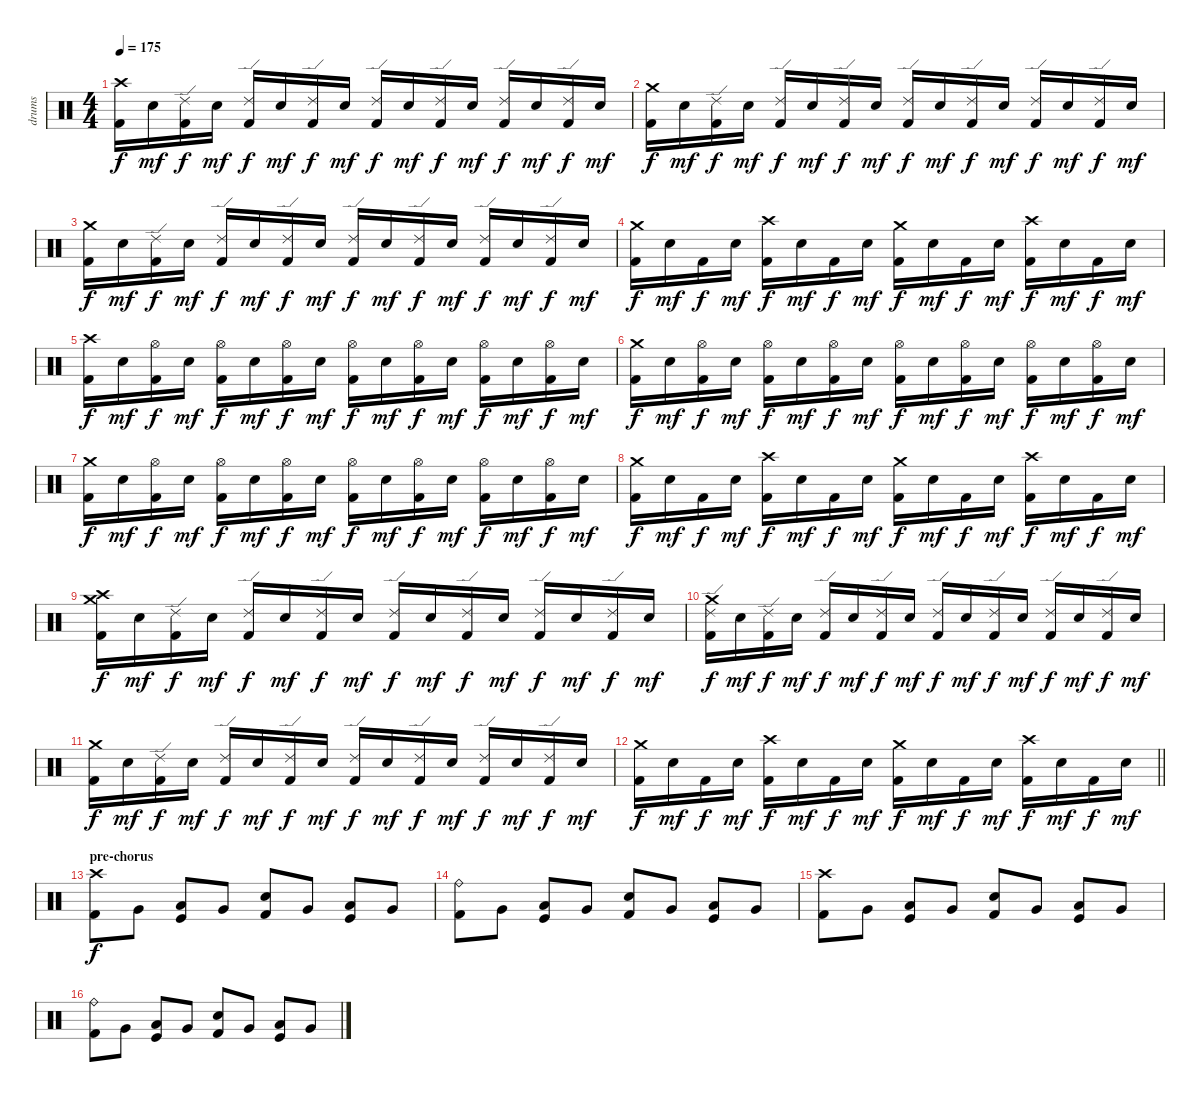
\track ("drums" "drums") {instrument percussion}
\staff {score}
\articulation defaults
\ts (4 4)
\tempo 175
\clef neutral
\ks c
("Crash high (hit)" "Kick (hit) 2").16{dy f} "Electric Snare (hit)".16{dy mf} ("Ride (edge) 2" "Kick (hit) 2").16{dy f} "Electric Snare (hit)".16{dy mf} ("Ride (edge) 2" "Kick (hit) 2").16{dy f} "Electric Snare (hit)".16{dy mf} ("Ride (edge) 2" "Kick (hit) 2").16{dy f} "Electric Snare (hit)".16{dy mf} ("Ride (edge) 2" "Kick (hit) 2").16{dy f} "Electric Snare (hit)".16{dy mf} ("Ride (edge) 2" "Kick (hit) 2").16{dy f} "Electric Snare (hit)".16{dy mf} ("Ride (edge) 2" "Kick (hit) 2").16{dy f} "Electric Snare (hit)".16{dy mf} ("Ride (edge) 2" "Kick (hit) 2").16{dy f} "Electric Snare (hit)".16{dy mf} |
("Crash medium (hit)" "Kick (hit) 2").16{dy f} "Electric Snare (hit)".16{dy mf} ("Ride (edge) 2" "Kick (hit) 2").16{dy f} "Electric Snare (hit)".16{dy mf} ("Ride (edge) 2" "Kick (hit) 2").16{dy f} "Electric Snare (hit)".16{dy mf} ("Ride (edge) 2" "Kick (hit) 2").16{dy f} "Electric Snare (hit)".16{dy mf} ("Ride (edge) 2" "Kick (hit) 2").16{dy f} "Electric Snare (hit)".16{dy mf} ("Ride (edge) 2" "Kick (hit) 2").16{dy f} "Electric Snare (hit)".16{dy mf} ("Ride (edge) 2" "Kick (hit) 2").16{dy f} "Electric Snare (hit)".16{dy mf} ("Ride (edge) 2" "Kick (hit) 2").16{dy f} "Electric Snare (hit)".16{dy mf} |
("Crash medium (hit)" "Kick (hit) 2").16{dy f} "Electric Snare (hit)".16{dy mf} ("Ride (edge) 2" "Kick (hit) 2").16{dy f} "Electric Snare (hit)".16{dy mf} ("Ride (edge) 2" "Kick (hit) 2").16{dy f} "Electric Snare (hit)".16{dy mf} ("Ride (edge) 2" "Kick (hit) 2").16{dy f} "Electric Snare (hit)".16{dy mf} ("Ride (edge) 2" "Kick (hit) 2").16{dy f} "Electric Snare (hit)".16{dy mf} ("Ride (edge) 2" "Kick (hit) 2").16{dy f} "Electric Snare (hit)".16{dy mf} ("Ride (edge) 2" "Kick (hit) 2").16{dy f} "Electric Snare (hit)".16{dy mf} ("Ride (edge) 2" "Kick (hit) 2").16{dy f} "Electric Snare (hit)".16{dy mf} |
("Crash medium (hit)" "Kick (hit) 2").16{dy f} "Electric Snare (hit)".16{dy mf} "Kick (hit) 2".16{dy f} "Electric Snare (hit)".16{dy mf} ("Crash high (hit)" "Kick (hit) 2").16{dy f} "Electric Snare (hit)".16{dy mf} "Kick (hit) 2".16{dy f} "Electric Snare (hit)".16{dy mf} ("Crash medium (hit)" "Kick (hit) 2").16{dy f} "Electric Snare (hit)".16{dy mf} "Kick (hit) 2".16{dy f} "Electric Snare (hit)".16{dy mf} ("Crash high (hit)" "Kick (hit) 2").16{dy f} "Electric Snare (hit)".16{dy mf} "Kick (hit) 2".16{dy f} "Electric Snare (hit)".16{dy mf} |
("Crash high (hit)" "Kick (hit) 2").16{dy f} "Electric Snare (hit)".16{dy mf} ("Hi-Hat (open)" "Kick (hit) 2").16{dy f} "Electric Snare (hit)".16{dy mf} ("Hi-Hat (open)" "Kick (hit) 2").16{dy f} "Electric Snare (hit)".16{dy mf} ("Hi-Hat (open)" "Kick (hit) 2").16{dy f} "Electric Snare (hit)".16{dy mf} ("Hi-Hat (open)" "Kick (hit) 2").16{dy f} "Electric Snare (hit)".16{dy mf} ("Hi-Hat (open)" "Kick (hit) 2").16{dy f} "Electric Snare (hit)".16{dy mf} ("Hi-Hat (open)" "Kick (hit) 2").16{dy f} "Electric Snare (hit)".16{dy mf} ("Hi-Hat (open)" "Kick (hit) 2").16{dy f} "Electric Snare (hit)".16{dy mf} |
("Crash medium (hit)" "Kick (hit) 2").16{dy f} "Electric Snare (hit)".16{dy mf} ("Hi-Hat (open)" "Kick (hit) 2").16{dy f} "Electric Snare (hit)".16{dy mf} ("Hi-Hat (open)" "Kick (hit) 2").16{dy f} "Electric Snare (hit)".16{dy mf} ("Hi-Hat (open)" "Kick (hit) 2").16{dy f} "Electric Snare (hit)".16{dy mf} ("Hi-Hat (open)" "Kick (hit) 2").16{dy f} "Electric Snare (hit)".16{dy mf} ("Hi-Hat (open)" "Kick (hit) 2").16{dy f} "Electric Snare (hit)".16{dy mf} ("Hi-Hat (open)" "Kick (hit) 2").16{dy f} "Electric Snare (hit)".16{dy mf} ("Hi-Hat (open)" "Kick (hit) 2").16{dy f} "Electric Snare (hit)".16{dy mf} |
("Crash medium (hit)" "Kick (hit) 2").16{dy f} "Electric Snare (hit)".16{dy mf} ("Hi-Hat (open)" "Kick (hit) 2").16{dy f} "Electric Snare (hit)".16{dy mf} ("Hi-Hat (open)" "Kick (hit) 2").16{dy f} "Electric Snare (hit)".16{dy mf} ("Hi-Hat (open)" "Kick (hit) 2").16{dy f} "Electric Snare (hit)".16{dy mf} ("Hi-Hat (open)" "Kick (hit) 2").16{dy f} "Electric Snare (hit)".16{dy mf} ("Hi-Hat (open)" "Kick (hit) 2").16{dy f} "Electric Snare (hit)".16{dy mf} ("Hi-Hat (open)" "Kick (hit) 2").16{dy f} "Electric Snare (hit)".16{dy mf} ("Hi-Hat (open)" "Kick (hit) 2").16{dy f} "Electric Snare (hit)".16{dy mf} |
("Crash medium (hit)" "Kick (hit) 2").16{dy f} "Electric Snare (hit)".16{dy mf} "Kick (hit) 2".16{dy f} "Electric Snare (hit)".16{dy mf} ("Crash high (hit)" "Kick (hit) 2").16{dy f} "Electric Snare (hit)".16{dy mf} "Kick (hit) 2".16{dy f} "Electric Snare (hit)".16{dy mf} ("Crash medium (hit)" "Kick (hit) 2").16{dy f} "Electric Snare (hit)".16{dy mf} "Kick (hit) 2".16{dy f} "Electric Snare (hit)".16{dy mf} ("Crash high (hit)" "Kick (hit) 2").16{dy f} "Electric Snare (hit)".16{dy mf} "Kick (hit) 2".16{dy f} "Electric Snare (hit)".16{dy mf} |
("Crash high (hit)" "Crash medium (hit)" "Kick (hit) 2").16{dy f} "Electric Snare (hit)".16{dy mf} ("Ride (edge) 2" "Kick (hit) 2").16{dy f} "Electric Snare (hit)".16{dy mf} ("Ride (edge) 2" "Kick (hit) 2").16{dy f} "Electric Snare (hit)".16{dy mf} ("Ride (edge) 2" "Kick (hit) 2").16{dy f} "Electric Snare (hit)".16{dy mf} ("Ride (edge) 2" "Kick (hit) 2").16{dy f} "Electric Snare (hit)".16{dy mf} ("Ride (edge) 2" "Kick (hit) 2").16{dy f} "Electric Snare (hit)".16{dy mf} ("Ride (edge) 2" "Kick (hit) 2").16{dy f} "Electric Snare (hit)".16{dy mf} ("Ride (edge) 2" "Kick (hit) 2").16{dy f} "Electric Snare (hit)".16{dy mf} |
("Crash medium (hit)" "Ride (edge) 2" "Kick (hit) 2").16{dy f} "Electric Snare (hit)".16{dy mf} ("Ride (edge) 2" "Kick (hit) 2").16{dy f} "Electric Snare (hit)".16{dy mf} ("Ride (edge) 2" "Kick (hit) 2").16{dy f} "Electric Snare (hit)".16{dy mf} ("Ride (edge) 2" "Kick (hit) 2").16{dy f} "Electric Snare (hit)".16{dy mf} ("Ride (edge) 2" "Kick (hit) 2").16{dy f} "Electric Snare (hit)".16{dy mf} ("Ride (edge) 2" "Kick (hit) 2").16{dy f} "Electric Snare (hit)".16{dy mf} ("Ride (edge) 2" "Kick (hit) 2").16{dy f} "Electric Snare (hit)".16{dy mf} ("Ride (edge) 2" "Kick (hit) 2").16{dy f} "Electric Snare (hit)".16{dy mf} |
("Crash medium (hit)" "Kick (hit) 2").16{dy f} "Electric Snare (hit)".16{dy mf} ("Ride (edge) 2" "Kick (hit) 2").16{dy f} "Electric Snare (hit)".16{dy mf} ("Ride (edge) 2" "Kick (hit) 2").16{dy f} "Electric Snare (hit)".16{dy mf} ("Ride (edge) 2" "Kick (hit) 2").16{dy f} "Electric Snare (hit)".16{dy mf} ("Ride (edge) 2" "Kick (hit) 2").16{dy f} "Electric Snare (hit)".16{dy mf} ("Ride (edge) 2" "Kick (hit) 2").16{dy f} "Electric Snare (hit)".16{dy mf} ("Ride (edge) 2" "Kick (hit) 2").16{dy f} "Electric Snare (hit)".16{dy mf} ("Ride (edge) 2" "Kick (hit) 2").16{dy f} "Electric Snare (hit)".16{dy mf} |
\barLineRight lightlight
("Crash medium (hit)" "Kick (hit) 2").16{dy f} "Electric Snare (hit)".16{dy mf} "Kick (hit) 2".16{dy f} "Electric Snare (hit)".16{dy mf} ("Crash high (hit)" "Kick (hit) 2").16{dy f} "Electric Snare (hit)".16{dy mf} "Kick (hit) 2".16{dy f} "Electric Snare (hit)".16{dy mf} ("Crash medium (hit)" "Kick (hit) 2").16{dy f} "Electric Snare (hit)".16{dy mf} "Kick (hit) 2".16{dy f} "Electric Snare (hit)".16{dy mf} ("Crash high (hit)" "Kick (hit) 2").16{dy f} "Electric Snare (hit)".16{dy mf} "Kick (hit) 2".16{dy f} "Electric Snare (hit)".16{dy mf} |
\section ("" "pre-chorus")
("Kick (hit) 2" "Crash high (hit)").8{dy f} "Very Low Tom (hit)".8 ("Kick (hit)" "Low Tom (hit)").8 "Very Low Tom (hit)".8 ("Kick (hit) 2" "Snare (hit) 2").8 "Very Low Tom (hit)".8 ("Kick (hit)" "Low Tom (hit)").8 "Very Low Tom (hit)".8 |
("Kick (hit) 2" "Ride (bell)").8 "Very Low Tom (hit)".8 ("Kick (hit)" "Low Tom (hit)").8 "Very Low Tom (hit)".8 ("Kick (hit) 2" "Snare (hit) 2").8 "Very Low Tom (hit)".8 ("Kick (hit)" "Low Tom (hit)").8 "Very Low Tom (hit)".8 |
("Kick (hit) 2" "Crash high (hit)").8 "Very Low Tom (hit)".8 ("Kick (hit)" "Low Tom (hit)").8 "Very Low Tom (hit)".8 ("Kick (hit) 2" "Snare (hit) 2").8 "Very Low Tom (hit)".8 ("Kick (hit)" "Low Tom (hit)").8 "Very Low Tom (hit)".8 |
("Kick (hit) 2" "Ride (bell)").8 "Very Low Tom (hit)".8 ("Kick (hit)" "Low Tom (hit)").8 "Very Low Tom (hit)".8 ("Kick (hit) 2" "Snare (hit) 2").8 "Very Low Tom (hit)".8 ("Kick (hit)" "Low Tom (hit)").8 "Very Low Tom (hit)".8
